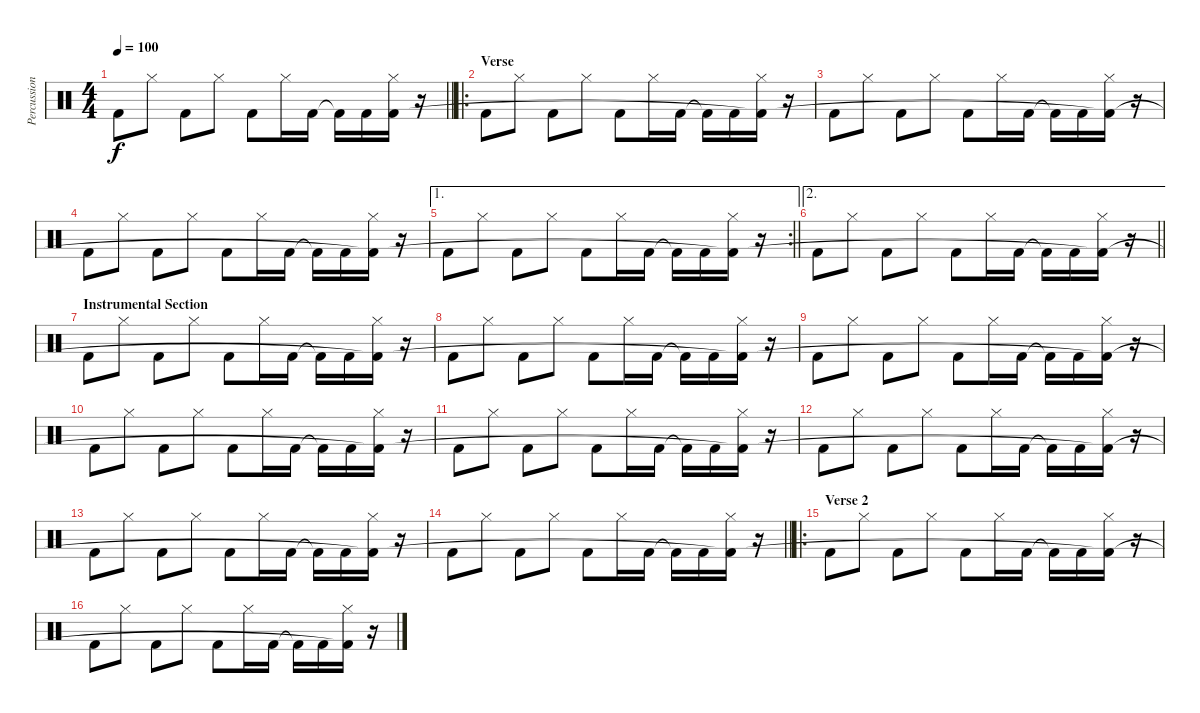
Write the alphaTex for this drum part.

\track ("Percussion" "Percussion") {instrument percussion}
\staff {score}
\articulation defaults
\ts (4 4)
\tempo 100
\clef neutral
\barLineRight lightlight
\ks c "Kick (hit) 2".8{dy f} "Hi-Hat (closed)".8 "Kick (hit) 2".8 "Hi-Hat (closed)".8 "Kick (hit) 2".8 "Hi-Hat (closed)".16 "Kick (hit) 2".16 "Kick (hit) 2"{t}.16 "Kick (hit) 2".16
("Hi-Hat (closed)" "Kick (hit) 2"{t}).16 r.16 |
\ro
\section ("" "Verse")
"Kick (hit) 2".8 "Hi-Hat (closed)".8 "Kick (hit) 2".8 "Hi-Hat (closed)".8 "Kick (hit) 2".8 "Hi-Hat (closed)".16 "Kick (hit) 2".16 "Kick (hit) 2"{t}.16 "Kick (hit) 2".16 ("Hi-Hat (closed)" "Kick (hit) 2"{t}).16 r.16 |
"Kick (hit) 2".8 "Hi-Hat (closed)".8 "Kick (hit) 2".8 "Hi-Hat (closed)".8 "Kick (hit) 2".8 "Hi-Hat (closed)".16 "Kick (hit) 2".16 "Kick (hit) 2"{t}.16 "Kick (hit) 2".16 ("Hi-Hat (closed)" "Kick (hit) 2"{t}).16 r.16 |
"Kick (hit) 2".8 "Hi-Hat (closed)".8 "Kick (hit) 2".8 "Hi-Hat (closed)".8 "Kick (hit) 2".8 "Hi-Hat (closed)".16 "Kick (hit) 2".16 "Kick (hit) 2"{t}.16 "Kick (hit) 2".16 ("Hi-Hat (closed)" "Kick (hit) 2"{t}).16 r.16 |
\ae 1
\rc 2
\barLineRight lightlight "Kick (hit) 2".8 "Hi-Hat (closed)".8 "Kick (hit) 2".8 "Hi-Hat (closed)".8 "Kick (hit) 2".8 "Hi-Hat (closed)".16 "Kick (hit) 2".16 "Kick (hit) 2"{t}.16 "Kick (hit) 2".16
("Hi-Hat (closed)" "Kick (hit) 2"{t}).16 r.16 |
\ae 2
\barLineRight lightlight "Kick (hit) 2".8 "Hi-Hat (closed)".8 "Kick (hit) 2".8 "Hi-Hat (closed)".8 "Kick (hit) 2".8 "Hi-Hat (closed)".16 "Kick (hit) 2".16 "Kick (hit) 2"{t}.16 "Kick (hit) 2".16
("Hi-Hat (closed)" "Kick (hit) 2"{t}).16 r.16 |
\section ("" "Instrumental Section")
"Kick (hit) 2".8 "Hi-Hat (closed)".8 "Kick (hit) 2".8 "Hi-Hat (closed)".8 "Kick (hit) 2".8 "Hi-Hat (closed)".16 "Kick (hit) 2".16 "Kick (hit) 2"{t}.16 "Kick (hit) 2".16 ("Hi-Hat (closed)" "Kick (hit) 2"{t}).16 r.16 |
"Kick (hit) 2".8 "Hi-Hat (closed)".8 "Kick (hit) 2".8 "Hi-Hat (closed)".8 "Kick (hit) 2".8 "Hi-Hat (closed)".16 "Kick (hit) 2".16 "Kick (hit) 2"{t}.16 "Kick (hit) 2".16 ("Hi-Hat (closed)" "Kick (hit) 2"{t}).16 r.16 |
"Kick (hit) 2".8 "Hi-Hat (closed)".8 "Kick (hit) 2".8 "Hi-Hat (closed)".8 "Kick (hit) 2".8 "Hi-Hat (closed)".16 "Kick (hit) 2".16 "Kick (hit) 2"{t}.16 "Kick (hit) 2".16 ("Hi-Hat (closed)" "Kick (hit) 2"{t}).16 r.16 |
"Kick (hit) 2".8 "Hi-Hat (closed)".8 "Kick (hit) 2".8 "Hi-Hat (closed)".8 "Kick (hit) 2".8 "Hi-Hat (closed)".16 "Kick (hit) 2".16 "Kick (hit) 2"{t}.16 "Kick (hit) 2".16 ("Hi-Hat (closed)" "Kick (hit) 2"{t}).16 r.16 |
"Kick (hit) 2".8 "Hi-Hat (closed)".8 "Kick (hit) 2".8 "Hi-Hat (closed)".8 "Kick (hit) 2".8 "Hi-Hat (closed)".16 "Kick (hit) 2".16 "Kick (hit) 2"{t}.16 "Kick (hit) 2".16 ("Hi-Hat (closed)" "Kick (hit) 2"{t}).16 r.16 |
"Kick (hit) 2".8 "Hi-Hat (closed)".8 "Kick (hit) 2".8 "Hi-Hat (closed)".8 "Kick (hit) 2".8 "Hi-Hat (closed)".16 "Kick (hit) 2".16 "Kick (hit) 2"{t}.16 "Kick (hit) 2".16 ("Hi-Hat (closed)" "Kick (hit) 2"{t}).16 r.16 |
"Kick (hit) 2".8 "Hi-Hat (closed)".8 "Kick (hit) 2".8 "Hi-Hat (closed)".8 "Kick (hit) 2".8 "Hi-Hat (closed)".16 "Kick (hit) 2".16 "Kick (hit) 2"{t}.16 "Kick (hit) 2".16 ("Hi-Hat (closed)" "Kick (hit) 2"{t}).16 r.16 |
\barLineRight lightlight "Kick (hit) 2".8 "Hi-Hat (closed)".8 "Kick (hit) 2".8 "Hi-Hat (closed)".8 "Kick (hit) 2".8 "Hi-Hat (closed)".16 "Kick (hit) 2".16 "Kick (hit) 2"{t}.16 "Kick (hit) 2".16
("Hi-Hat (closed)" "Kick (hit) 2"{t}).16 r.16 |
\ro
\section ("" "Verse 2")
"Kick (hit) 2".8 "Hi-Hat (closed)".8 "Kick (hit) 2".8 "Hi-Hat (closed)".8 "Kick (hit) 2".8 "Hi-Hat (closed)".16 "Kick (hit) 2".16 "Kick (hit) 2"{t}.16 "Kick (hit) 2".16 ("Hi-Hat (closed)" "Kick (hit) 2"{t}).16 r.16 |
"Kick (hit) 2".8 "Hi-Hat (closed)".8 "Kick (hit) 2".8 "Hi-Hat (closed)".8 "Kick (hit) 2".8 "Hi-Hat (closed)".16 "Kick (hit) 2".16 "Kick (hit) 2"{t}.16 "Kick (hit) 2".16 ("Hi-Hat (closed)" "Kick (hit) 2"{t}).16 r.16
